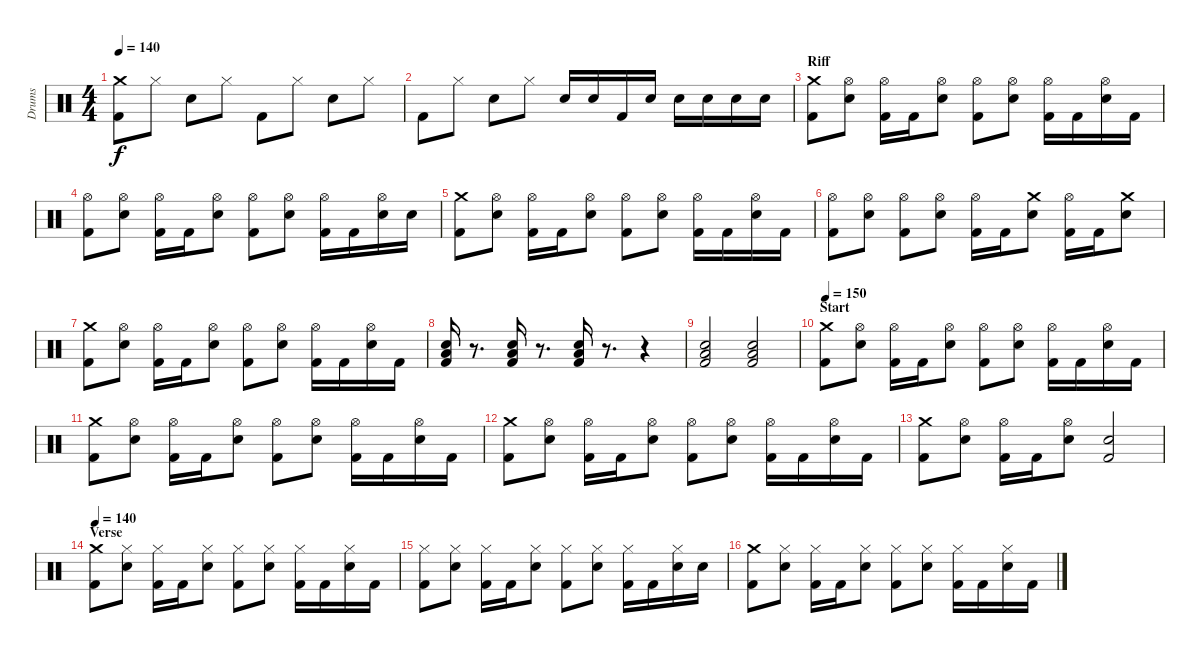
\track ("Drums" "Drums") {instrument percussion}
\staff {score}
\articulation defaults
\ts (4 4)
\tempo 140
\clef neutral
\ks c
("Crash medium (hit)" "Kick (hit) 2").8{dy f} "Hi-Hat (closed)".8 "Electric Snare (hit)".8 "Hi-Hat (closed)".8 "Kick (hit) 2".8 "Hi-Hat (closed)".8 "Electric Snare (hit)".8 "Hi-Hat (closed)".8 |
"Kick (hit) 2".8 "Hi-Hat (closed)".8 "Electric Snare (hit)".8 "Hi-Hat (closed)".8 "Electric Snare (hit)".16 "Electric Snare (hit)".16 "Kick (hit) 2".16 "Electric Snare (hit)".16 "Electric Snare (hit)".16 "Electric Snare (hit)".16 "Electric Snare (hit)".16 "Electric Snare (hit)".16 |
\section ("" "Riff")
("Crash medium (hit)" "Kick (hit) 2").8 ("Hi-Hat (open)" "Electric Snare (hit)").8 ("Hi-Hat (open)" "Kick (hit) 2").16 "Kick (hit) 2".16 ("Hi-Hat (open)" "Electric Snare (hit)").8 ("Hi-Hat (open)" "Kick (hit) 2").8 ("Hi-Hat (open)" "Electric Snare (hit)").8 ("Hi-Hat (open)" "Kick (hit) 2").16 "Kick (hit) 2".16 ("Hi-Hat (open)" "Electric Snare (hit)").16 "Kick (hit) 2".16 |
("Hi-Hat (open)" "Kick (hit) 2").8 ("Hi-Hat (open)" "Electric Snare (hit)").8 ("Hi-Hat (open)" "Kick (hit) 2").16 "Kick (hit) 2".16 ("Hi-Hat (open)" "Electric Snare (hit)").8 ("Hi-Hat (open)" "Kick (hit) 2").8 ("Hi-Hat (open)" "Electric Snare (hit)").8 ("Hi-Hat (open)" "Kick (hit) 2").16 "Kick (hit) 2".16 ("Hi-Hat (open)" "Electric Snare (hit)").16 "Electric Snare (hit)".16 |
("Crash medium (hit)" "Kick (hit) 2").8 ("Hi-Hat (open)" "Electric Snare (hit)").8 ("Hi-Hat (open)" "Kick (hit) 2").16 "Kick (hit) 2".16 ("Hi-Hat (open)" "Electric Snare (hit)").8 ("Hi-Hat (open)" "Kick (hit) 2").8 ("Hi-Hat (open)" "Electric Snare (hit)").8 ("Hi-Hat (open)" "Kick (hit) 2").16 "Kick (hit) 2".16 ("Hi-Hat (open)" "Electric Snare (hit)").16 "Kick (hit) 2".16 |
("Hi-Hat (open)" "Kick (hit) 2").8 ("Hi-Hat (open)" "Electric Snare (hit)").8 ("Hi-Hat (open)" "Kick (hit) 2").8 ("Hi-Hat (open)" "Electric Snare (hit)").8 ("Hi-Hat (open)" "Kick (hit) 2").16 "Kick (hit) 2".16 ("Crash medium (hit)" "Electric Snare (hit)").8 ("Hi-Hat (open)" "Kick (hit) 2").16 "Kick (hit) 2".16 ("Crash medium (hit)" "Electric Snare (hit)").8 |
("Crash medium (hit)" "Kick (hit) 2").8 ("Hi-Hat (open)" "Electric Snare (hit)").8 ("Hi-Hat (open)" "Kick (hit) 2").16 "Kick (hit) 2".16 ("Hi-Hat (open)" "Electric Snare (hit)").8 ("Hi-Hat (open)" "Kick (hit) 2").8 ("Hi-Hat (open)" "Electric Snare (hit)").8 ("Hi-Hat (open)" "Kick (hit) 2").16 "Kick (hit) 2".16 ("Hi-Hat (open)" "Electric Snare (hit)").16 "Kick (hit) 2".16 |
("Low Floor Tom (hit)" "Electric Snare (hit)" "Kick (hit) 2").16 r.8{d} ("Low Floor Tom (hit)" "Electric Snare (hit)" "Kick (hit) 2").16 r.8{d} ("Low Floor Tom (hit)" "Electric Snare (hit)" "Kick (hit) 2").16 r.8{d} r.4 |
("Low Floor Tom (hit)" "Electric Snare (hit)" "Kick (hit) 2").2 ("Low Floor Tom (hit)" "Electric Snare (hit)" "Kick (hit) 2").2 |
\section ("" "Start")
\tempo 150
("Crash medium (hit)" "Kick (hit) 2").8 ("Hi-Hat (open)" "Electric Snare (hit)").8 ("Hi-Hat (open)" "Kick (hit) 2").16 "Kick (hit) 2".16 ("Hi-Hat (open)" "Electric Snare (hit)").8 ("Hi-Hat (open)" "Kick (hit) 2").8 ("Hi-Hat (open)" "Electric Snare (hit)").8 ("Hi-Hat (open)" "Kick (hit) 2").16 "Kick (hit) 2".16 ("Hi-Hat (open)" "Electric Snare (hit)").16 "Kick (hit) 2".16 |
("Crash medium (hit)" "Kick (hit) 2").8 ("Hi-Hat (open)" "Electric Snare (hit)").8 ("Hi-Hat (open)" "Kick (hit) 2").16 "Kick (hit) 2".16 ("Hi-Hat (open)" "Electric Snare (hit)").8 ("Hi-Hat (open)" "Kick (hit) 2").8 ("Hi-Hat (open)" "Electric Snare (hit)").8 ("Hi-Hat (open)" "Kick (hit) 2").16 "Kick (hit) 2".16 ("Hi-Hat (open)" "Electric Snare (hit)").16 "Kick (hit) 2".16 |
("Crash medium (hit)" "Kick (hit) 2").8 ("Hi-Hat (open)" "Electric Snare (hit)").8 ("Hi-Hat (open)" "Kick (hit) 2").16 "Kick (hit) 2".16 ("Hi-Hat (open)" "Electric Snare (hit)").8 ("Hi-Hat (open)" "Kick (hit) 2").8 ("Hi-Hat (open)" "Electric Snare (hit)").8 ("Hi-Hat (open)" "Kick (hit) 2").16 "Kick (hit) 2".16 ("Hi-Hat (open)" "Electric Snare (hit)").16 "Kick (hit) 2".16 |
("Crash medium (hit)" "Kick (hit) 2").8 ("Hi-Hat (open)" "Electric Snare (hit)").8 ("Hi-Hat (open)" "Kick (hit) 2").16 "Kick (hit) 2".16 ("Hi-Hat (open)" "Electric Snare (hit)").8 ("Electric Snare (hit)" "Kick (hit) 2").2 |
\section ("" "Verse")
\tempo 140
("Crash medium (hit)" "Kick (hit) 2").8 ("Hi-Hat (closed)" "Electric Snare (hit)").8 ("Hi-Hat (closed)" "Kick (hit) 2").16 "Kick (hit) 2".16 ("Hi-Hat (closed)" "Electric Snare (hit)").8 ("Hi-Hat (closed)" "Kick (hit) 2").8 ("Hi-Hat (closed)" "Electric Snare (hit)").8 ("Hi-Hat (closed)" "Kick (hit) 2").16 "Kick (hit) 2".16 ("Hi-Hat (closed)" "Electric Snare (hit)").16 "Kick (hit) 2".16 |
("Hi-Hat (closed)" "Kick (hit) 2").8 ("Hi-Hat (closed)" "Electric Snare (hit)").8 ("Hi-Hat (closed)" "Kick (hit) 2").16 "Kick (hit) 2".16 ("Hi-Hat (closed)" "Electric Snare (hit)").8 ("Hi-Hat (closed)" "Kick (hit) 2").8 ("Hi-Hat (closed)" "Electric Snare (hit)").8 ("Hi-Hat (closed)" "Kick (hit) 2").16 "Kick (hit) 2".16 ("Hi-Hat (closed)" "Electric Snare (hit)").16 "Electric Snare (hit)".16 |
("Crash medium (hit)" "Kick (hit) 2").8 ("Hi-Hat (closed)" "Electric Snare (hit)").8 ("Hi-Hat (closed)" "Kick (hit) 2").16 "Kick (hit) 2".16 ("Hi-Hat (closed)" "Electric Snare (hit)").8 ("Hi-Hat (closed)" "Kick (hit) 2").8 ("Hi-Hat (closed)" "Electric Snare (hit)").8 ("Hi-Hat (closed)" "Kick (hit) 2").16 "Kick (hit) 2".16 ("Hi-Hat (closed)" "Electric Snare (hit)").16 "Kick (hit) 2".16
